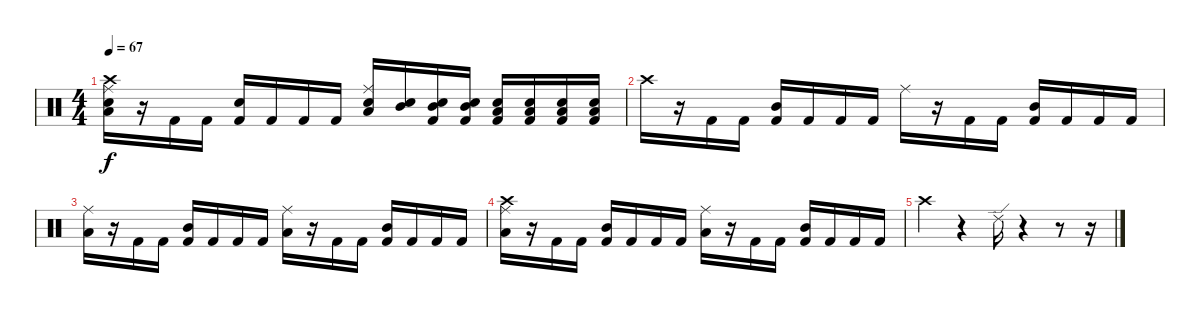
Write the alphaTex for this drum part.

\track "" {instrument percussion}
\staff {score}
\articulation defaults
\ts (4 4)
\tempo 67
\clef neutral
\ks c
("Snare (hit) 2" "Low Floor Tom (hit)" "Crash high (hit)" "Ride (middle)").16{dy f} r.16 "Kick (hit) 2".16 "Kick (hit) 2".16 ("Snare (hit) 2" "Kick (hit) 2").16 "Kick (hit) 2".16 "Kick (hit) 2".16 "Kick (hit) 2".16 ("Electric Snare (hit)" "Low Floor Tom (hit)" "Ride (middle)").16 ("Electric Snare (hit)" "Mid Tom (hit)").16 ("Electric Snare (hit)" "Kick (hit) 2" "Mid Tom (hit)").16 ("Electric Snare (hit)" "Kick (hit) 2" "Mid Tom (hit)").16 ("Snare (hit) 2" "Kick (hit) 2" "Low Floor Tom (hit)").16 ("Snare (hit) 2" "Kick (hit) 2" "Low Tom (hit)").16 ("Snare (hit) 2" "Kick (hit) 2" "Low Tom (hit)").16 ("Snare (hit) 2" "Kick (hit) 2" "Low Tom (hit)").16 |
"Crash high (hit)".16 r.16 "Kick (hit) 2".16 "Kick (hit) 2".16 ("Mid Tom (hit)" "Kick (hit) 2").16 "Kick (hit) 2".16 "Kick (hit) 2".16 "Kick (hit) 2".16 "Ride (middle)".16 r.16 "Kick (hit) 2".16 "Kick (hit) 2".16 ("Mid Tom (hit)" "Kick (hit) 2").16 "Kick (hit) 2".16 "Kick (hit) 2".16 "Kick (hit) 2".16 |
("Low Floor Tom (hit)" "Ride (middle)").16 r.16 "Kick (hit) 2".16 "Kick (hit) 2".16 ("Mid Tom (hit)" "Kick (hit) 2").16 "Kick (hit) 2".16 "Kick (hit) 2".16 "Kick (hit) 2".16 ("Low Floor Tom (hit)" "Ride (middle)").16 r.16 "Kick (hit) 2".16 "Kick (hit) 2".16 ("Mid Tom (hit)" "Kick (hit) 2").16 "Kick (hit) 2".16 "Kick (hit) 2".16 "Kick (hit) 2".16 |
("Low Floor Tom (hit)" "Crash high (hit)" "Ride (middle)").16 r.16 "Kick (hit) 2".16 "Kick (hit) 2".16 ("Mid Tom (hit)" "Kick (hit) 2").16 "Kick (hit) 2".16 "Kick (hit) 2".16 "Kick (hit) 2".16 ("Low Floor Tom (hit)" "Ride (middle)").16 r.16 "Kick (hit) 2".16 "Kick (hit) 2".16 ("Mid Tom (hit)" "Kick (hit) 2").16 "Kick (hit) 2".16 "Kick (hit) 2".16 "Kick (hit) 2".16 |
"Crash high (hit)".4 r.4 "Ride (edge) 2".16 r.4 r.8 r.16
